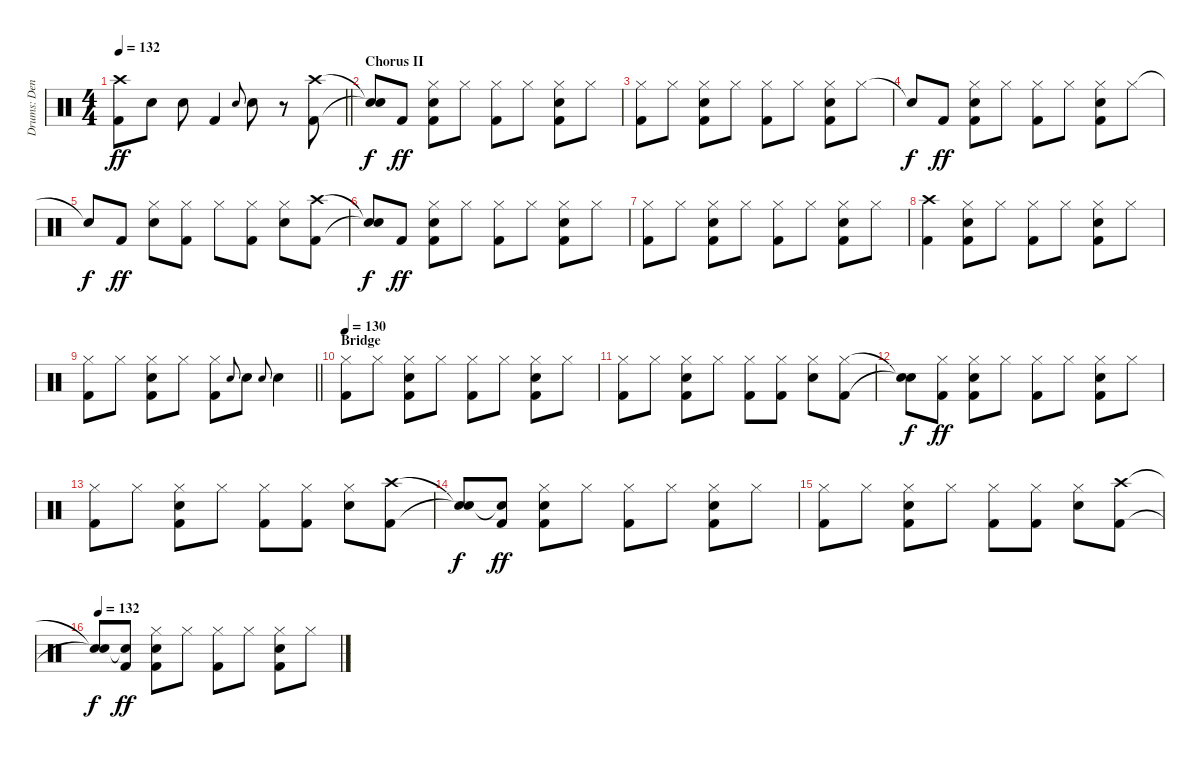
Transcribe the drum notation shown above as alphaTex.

\track ("Drums: Denny" "Drums: Den") {instrument percussion}
\staff {score}
\articulation defaults
\ts (4 4)
\tempo 132
\clef neutral
\barLineRight lightlight
\ks c
("Crash high (hit)" "Kick (hit) 2").8{dy ff} "Electric Snare (hit)".8 "Electric Snare (hit)".8 "Kick (hit) 2".4 "Snare (hit) 2".8{gr onbeat} "Electric Snare (hit)".8 r.8 ("Crash high (hit)" "Kick (hit) 2").8 |
\section ("" "Chorus II")
("Snare (hit)"{t} "Snare (hit)"{t}).8{dy f} "Kick (hit) 2".8{dy ff} ("Hi-Hat (closed)" "Electric Snare (hit)" "Kick (hit) 2").8 "Hi-Hat (closed)".8 ("Hi-Hat (closed)" "Kick (hit) 2").8 "Hi-Hat (closed)".8 ("Hi-Hat (closed)" "Electric Snare (hit)" "Kick (hit) 2").8 "Hi-Hat (closed)".8 |
("Hi-Hat (closed)" "Kick (hit) 2").8 "Hi-Hat (closed)".8 ("Hi-Hat (closed)" "Electric Snare (hit)" "Kick (hit) 2").8 "Hi-Hat (closed)".8 ("Hi-Hat (closed)" "Kick (hit) 2").8 "Hi-Hat (closed)".8 ("Hi-Hat (closed)" "Electric Snare (hit)" "Kick (hit) 2").8 "Hi-Hat (closed)".8 |
"Snare (hit)"{t}.8{dy f} "Kick (hit) 2".8{dy ff} ("Hi-Hat (closed)" "Electric Snare (hit)" "Kick (hit) 2").8 "Hi-Hat (closed)".8 ("Hi-Hat (closed)" "Kick (hit) 2").8 "Hi-Hat (closed)".8 ("Hi-Hat (closed)" "Electric Snare (hit)" "Kick (hit) 2").8 "Hi-Hat (closed)".8 |
"Snare (hit)"{t}.8{dy f} "Kick (hit) 2".8{dy ff} ("Hi-Hat (closed)" "Electric Snare (hit)").8 ("Hi-Hat (closed)" "Kick (hit) 2").8 "Hi-Hat (closed)".8 ("Hi-Hat (closed)" "Kick (hit) 2").8 ("Hi-Hat (closed)" "Electric Snare (hit)").8 ("Crash high (hit)" "Kick (hit) 2").8 |
("Snare (hit)"{t} "Snare (hit)"{t}).8{dy f} "Kick (hit) 2".8{dy ff} ("Hi-Hat (closed)" "Electric Snare (hit)" "Kick (hit) 2").8 "Hi-Hat (closed)".8 ("Hi-Hat (closed)" "Kick (hit) 2").8 "Hi-Hat (closed)".8 ("Hi-Hat (closed)" "Electric Snare (hit)" "Kick (hit) 2").8 "Hi-Hat (closed)".8 |
("Hi-Hat (closed)" "Kick (hit) 2").8 "Hi-Hat (closed)".8 ("Hi-Hat (closed)" "Electric Snare (hit)" "Kick (hit) 2").8 "Hi-Hat (closed)".8 ("Hi-Hat (closed)" "Kick (hit) 2").8 "Hi-Hat (closed)".8 ("Hi-Hat (closed)" "Electric Snare (hit)" "Kick (hit) 2").8 "Hi-Hat (closed)".8 |
("Crash high (hit)" "Kick (hit) 2").4 ("Hi-Hat (closed)" "Electric Snare (hit)" "Kick (hit) 2").8 "Hi-Hat (closed)".8 ("Hi-Hat (closed)" "Kick (hit) 2").8 "Hi-Hat (closed)".8 ("Hi-Hat (closed)" "Electric Snare (hit)" "Kick (hit) 2").8 "Hi-Hat (closed)".8 |
\barLineRight lightlight
("Hi-Hat (closed)" "Kick (hit) 2").8 "Hi-Hat (closed)".8 ("Hi-Hat (closed)" "Electric Snare (hit)" "Kick (hit) 2").8 "Hi-Hat (closed)".8 ("Hi-Hat (closed)" "Kick (hit) 2").8 "Snare (hit) 2".8{gr onbeat} "Electric Snare (hit)".8 "Snare (hit) 2".8{gr onbeat} "Electric Snare (hit)".4 |
\section ("" "Bridge")
\tempo 130
("Hi-Hat (closed)" "Kick (hit) 2").8 "Hi-Hat (closed)".8 ("Hi-Hat (closed)" "Electric Snare (hit)" "Kick (hit) 2").8 "Hi-Hat (closed)".8 ("Hi-Hat (closed)" "Kick (hit) 2").8 "Hi-Hat (closed)".8 ("Hi-Hat (closed)" "Electric Snare (hit)" "Kick (hit) 2").8 "Hi-Hat (closed)".8 |
("Hi-Hat (closed)" "Kick (hit) 2").8 "Hi-Hat (closed)".8 ("Hi-Hat (closed)" "Electric Snare (hit)" "Kick (hit) 2").8 "Hi-Hat (closed)".8 ("Hi-Hat (closed)" "Kick (hit) 2").8 ("Hi-Hat (closed)" "Kick (hit) 2").8 ("Hi-Hat (closed)" "Electric Snare (hit)").8 ("Hi-Hat (closed)" "Kick (hit) 2").8 |
("Snare (hit)"{t} "Snare (hit)"{t}).8{dy f} ("Hi-Hat (closed)" "Kick (hit) 2").8{dy ff} ("Hi-Hat (closed)" "Electric Snare (hit)" "Kick (hit) 2").8 "Hi-Hat (closed)".8 ("Hi-Hat (closed)" "Kick (hit) 2").8 "Hi-Hat (closed)".8 ("Hi-Hat (closed)" "Electric Snare (hit)" "Kick (hit) 2").8 "Hi-Hat (closed)".8 |
("Hi-Hat (closed)" "Kick (hit) 2").8 "Hi-Hat (closed)".8 ("Hi-Hat (closed)" "Electric Snare (hit)" "Kick (hit) 2").8 "Hi-Hat (closed)".8 ("Hi-Hat (closed)" "Kick (hit) 2").8 ("Hi-Hat (closed)" "Kick (hit) 2").8 ("Hi-Hat (closed)" "Electric Snare (hit)").8 ("Crash high (hit)" "Kick (hit) 2").8 |
("Snare (hit)"{t} "Snare (hit)"{t}).8{dy f} ("Snare (hit)"{t} "Kick (hit) 2").8{dy ff} ("Hi-Hat (closed)" "Electric Snare (hit)" "Kick (hit) 2").8 "Hi-Hat (closed)".8 ("Hi-Hat (closed)" "Kick (hit) 2").8 "Hi-Hat (closed)".8 ("Hi-Hat (closed)" "Electric Snare (hit)" "Kick (hit) 2").8 "Hi-Hat (closed)".8 |
("Hi-Hat (closed)" "Kick (hit) 2").8 "Hi-Hat (closed)".8 ("Hi-Hat (closed)" "Electric Snare (hit)" "Kick (hit) 2").8 "Hi-Hat (closed)".8 ("Hi-Hat (closed)" "Kick (hit) 2").8 ("Hi-Hat (closed)" "Kick (hit) 2").8 ("Hi-Hat (closed)" "Electric Snare (hit)").8 ("Crash high (hit)" "Kick (hit) 2").8 |
\tempo 132
("Snare (hit)"{t} "Snare (hit)"{t}).8{dy f} ("Snare (hit)"{t} "Kick (hit) 2").8{dy ff} ("Hi-Hat (closed)" "Electric Snare (hit)" "Kick (hit) 2").8 "Hi-Hat (closed)".8 ("Hi-Hat (closed)" "Kick (hit) 2").8 "Hi-Hat (closed)".8 ("Hi-Hat (closed)" "Electric Snare (hit)" "Kick (hit) 2").8 "Hi-Hat (closed)".8
